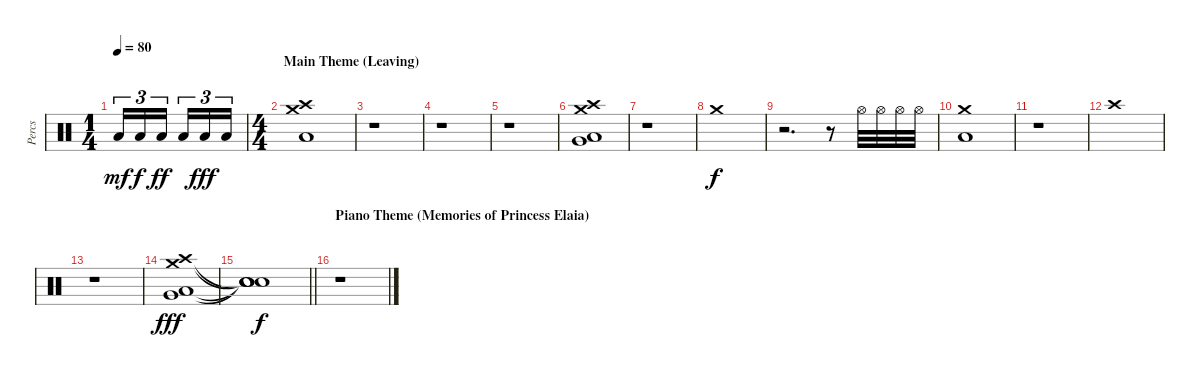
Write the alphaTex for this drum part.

\track ("Percs" "Percs") {instrument percussion}
\staff {score}
\articulation defaults
\ts (1 4)
\tempo 80
\clef neutral
\ks c "Low Tom (hit)".16{tu (3 2) dy mf} "Low Tom (hit)".16{tu (3 2) dy f} "Low Tom (hit)".16{tu (3 2) dy ff} "Low Tom (hit)".16{tu (3 2)} "Low Tom (hit)".16{tu (3 2) dy fff} "Low Tom (hit)".16{tu (3 2)}
|
\ts (4 4)
\section ("" "Main Theme (Leaving)")
("Crash medium (hit)" "Crash high (hit)" "Low Tom (hit)").1 |
r.1 |
r.1 |
r.1 |
("Crash medium (hit)" "Crash high (hit)" "Low Tom (hit)" "Very Low Tom (hit)").1 |
r.1 |
"Crash medium (hit)".1{dy f} |
r.2{d} r.8 "Hi-Hat (open)".32 "Hi-Hat (open)".32 "Hi-Hat (open)".32 "Hi-Hat (open)".32 |
("Crash medium (hit)" "Low Tom (hit)").1 |
r.1 |
"Crash high (hit)".1 |
r.1 |
("Crash medium (hit)" "Crash high (hit)" "Low Tom (hit)" "Very Low Tom (hit)").1{dy fff} |
\barLineRight lightlight
("Snare (hit)"{t} "Snare (hit)"{t} "Snare (hit)"{t} "Snare (hit)"{t}).1{dy f} |
\section ("" "Piano Theme (Memories of Princess Elaia)")
r.1
